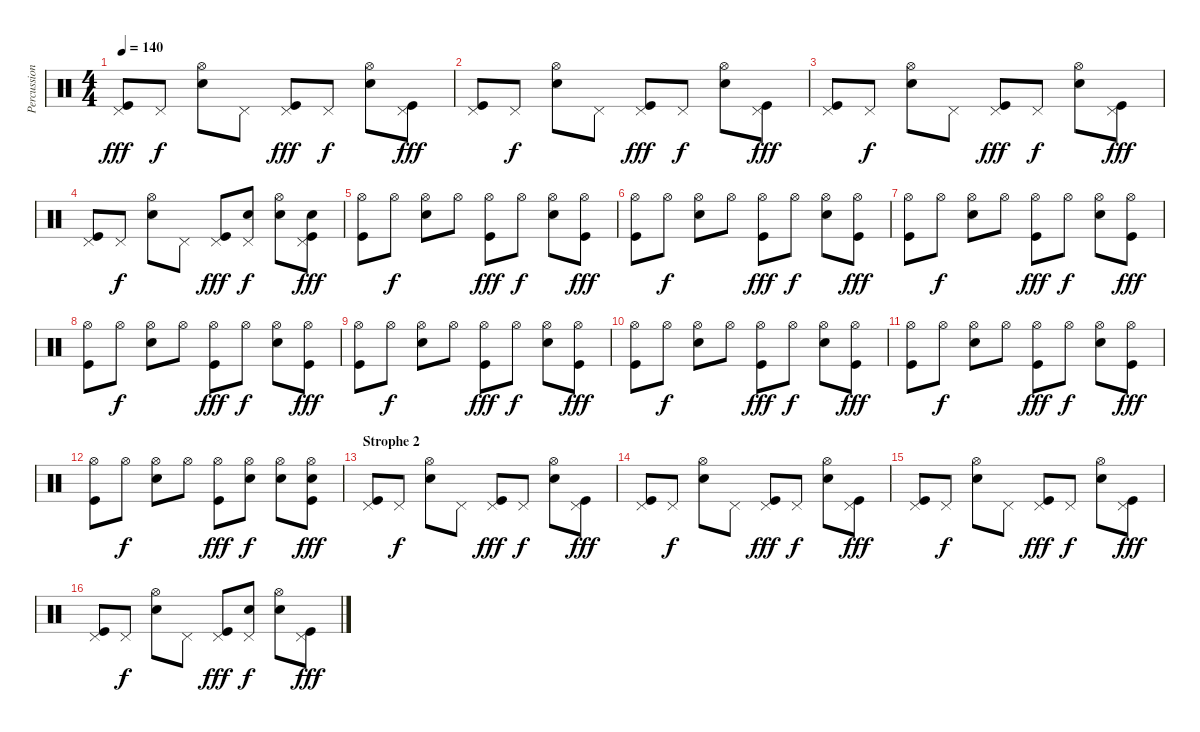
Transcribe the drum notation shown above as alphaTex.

\track ("Percussion" "Percussion") {instrument percussion}
\staff {score}
\articulation defaults
\ts (4 4)
\tempo 140
\clef neutral
\ks c
("Kick (hit)" "Pedal Hi-Hat (hit)").8{dy fff} "Pedal Hi-Hat (hit)".8{dy f} ("Metronome (bell)" "Hi-Hat (open)").8 "Pedal Hi-Hat (hit)".8 ("Kick (hit)" "Pedal Hi-Hat (hit)").8{dy fff} "Pedal Hi-Hat (hit)".8{dy f} ("Metronome (bell)" "Hi-Hat (open)").8 ("Kick (hit)" "Pedal Hi-Hat (hit)").8{dy fff} |
("Kick (hit)" "Pedal Hi-Hat (hit)").8 "Pedal Hi-Hat (hit)".8{dy f} ("Metronome (bell)" "Hi-Hat (open)").8 "Pedal Hi-Hat (hit)".8 ("Kick (hit)" "Pedal Hi-Hat (hit)").8{dy fff} "Pedal Hi-Hat (hit)".8{dy f} ("Metronome (bell)" "Hi-Hat (open)").8 ("Kick (hit)" "Pedal Hi-Hat (hit)").8{dy fff} |
("Kick (hit)" "Pedal Hi-Hat (hit)").8 "Pedal Hi-Hat (hit)".8{dy f} ("Metronome (bell)" "Hi-Hat (open)").8 "Pedal Hi-Hat (hit)".8 ("Kick (hit)" "Pedal Hi-Hat (hit)").8{dy fff} "Pedal Hi-Hat (hit)".8{dy f} ("Metronome (bell)" "Hi-Hat (open)").8 ("Kick (hit)" "Pedal Hi-Hat (hit)").8{dy fff} |
("Kick (hit)" "Pedal Hi-Hat (hit)").8 "Pedal Hi-Hat (hit)".8{dy f} ("Metronome (bell)" "Hi-Hat (open)").8 "Pedal Hi-Hat (hit)".8 ("Kick (hit)" "Pedal Hi-Hat (hit)").8{dy fff} ("Metronome (bell)" "Pedal Hi-Hat (hit)").8{dy f} ("Metronome (bell)" "Hi-Hat (open)").8 ("Kick (hit)" "Metronome (bell)" "Pedal Hi-Hat (hit)").8{dy fff} |
("Kick (hit)" "Hi-Hat (open)").8 "Hi-Hat (open)".8{dy f} ("Metronome (bell)" "Hi-Hat (open)").8 "Hi-Hat (open)".8 ("Kick (hit)" "Hi-Hat (open)").8{dy fff} "Hi-Hat (open)".8{dy f} ("Metronome (bell)" "Hi-Hat (open)").8 ("Kick (hit)" "Hi-Hat (open)").8{dy fff} |
("Kick (hit)" "Hi-Hat (open)").8 "Hi-Hat (open)".8{dy f} ("Metronome (bell)" "Hi-Hat (open)").8 "Hi-Hat (open)".8 ("Kick (hit)" "Hi-Hat (open)").8{dy fff} "Hi-Hat (open)".8{dy f} ("Metronome (bell)" "Hi-Hat (open)").8 ("Kick (hit)" "Hi-Hat (open)").8{dy fff} |
("Kick (hit)" "Hi-Hat (open)").8 "Hi-Hat (open)".8{dy f} ("Metronome (bell)" "Hi-Hat (open)").8 "Hi-Hat (open)".8 ("Kick (hit)" "Hi-Hat (open)").8{dy fff} "Hi-Hat (open)".8{dy f} ("Metronome (bell)" "Hi-Hat (open)").8 ("Kick (hit)" "Hi-Hat (open)").8{dy fff} |
("Kick (hit)" "Hi-Hat (open)").8 "Hi-Hat (open)".8{dy f} ("Metronome (bell)" "Hi-Hat (open)").8 "Hi-Hat (open)".8 ("Kick (hit)" "Hi-Hat (open)").8{dy fff} "Hi-Hat (open)".8{dy f} ("Metronome (bell)" "Hi-Hat (open)").8 ("Kick (hit)" "Hi-Hat (open)").8{dy fff} |
("Kick (hit)" "Hi-Hat (open)").8 "Hi-Hat (open)".8{dy f} ("Metronome (bell)" "Hi-Hat (open)").8 "Hi-Hat (open)".8 ("Kick (hit)" "Hi-Hat (open)").8{dy fff} "Hi-Hat (open)".8{dy f} ("Metronome (bell)" "Hi-Hat (open)").8 ("Kick (hit)" "Hi-Hat (open)").8{dy fff} |
("Kick (hit)" "Hi-Hat (open)").8 "Hi-Hat (open)".8{dy f} ("Metronome (bell)" "Hi-Hat (open)").8 "Hi-Hat (open)".8 ("Kick (hit)" "Hi-Hat (open)").8{dy fff} "Hi-Hat (open)".8{dy f} ("Metronome (bell)" "Hi-Hat (open)").8 ("Kick (hit)" "Hi-Hat (open)").8{dy fff} |
("Kick (hit)" "Hi-Hat (open)").8 "Hi-Hat (open)".8{dy f} ("Metronome (bell)" "Hi-Hat (open)").8 "Hi-Hat (open)".8 ("Kick (hit)" "Hi-Hat (open)").8{dy fff} "Hi-Hat (open)".8{dy f} ("Metronome (bell)" "Hi-Hat (open)").8 ("Kick (hit)" "Hi-Hat (open)").8{dy fff} |
("Kick (hit)" "Hi-Hat (open)").8 "Hi-Hat (open)".8{dy f} ("Metronome (bell)" "Hi-Hat (open)").8 "Hi-Hat (open)".8 ("Kick (hit)" "Hi-Hat (open)").8{dy fff} ("Metronome (bell)" "Hi-Hat (open)").8{dy f} ("Metronome (bell)" "Hi-Hat (open)").8 ("Kick (hit)" "Metronome (bell)" "Hi-Hat (open)").8{dy fff} |
\section ("" "Strophe 2")
("Kick (hit)" "Pedal Hi-Hat (hit)").8 "Pedal Hi-Hat (hit)".8{dy f} ("Metronome (bell)" "Hi-Hat (open)").8 "Pedal Hi-Hat (hit)".8 ("Kick (hit)" "Pedal Hi-Hat (hit)").8{dy fff} "Pedal Hi-Hat (hit)".8{dy f} ("Metronome (bell)" "Hi-Hat (open)").8 ("Kick (hit)" "Pedal Hi-Hat (hit)").8{dy fff} |
("Kick (hit)" "Pedal Hi-Hat (hit)").8 "Pedal Hi-Hat (hit)".8{dy f} ("Metronome (bell)" "Hi-Hat (open)").8 "Pedal Hi-Hat (hit)".8 ("Kick (hit)" "Pedal Hi-Hat (hit)").8{dy fff} "Pedal Hi-Hat (hit)".8{dy f} ("Metronome (bell)" "Hi-Hat (open)").8 ("Kick (hit)" "Pedal Hi-Hat (hit)").8{dy fff} |
("Kick (hit)" "Pedal Hi-Hat (hit)").8 "Pedal Hi-Hat (hit)".8{dy f} ("Metronome (bell)" "Hi-Hat (open)").8 "Pedal Hi-Hat (hit)".8 ("Kick (hit)" "Pedal Hi-Hat (hit)").8{dy fff} "Pedal Hi-Hat (hit)".8{dy f} ("Metronome (bell)" "Hi-Hat (open)").8 ("Kick (hit)" "Pedal Hi-Hat (hit)").8{dy fff} |
("Kick (hit)" "Pedal Hi-Hat (hit)").8 "Pedal Hi-Hat (hit)".8{dy f} ("Metronome (bell)" "Hi-Hat (open)").8 "Pedal Hi-Hat (hit)".8 ("Kick (hit)" "Pedal Hi-Hat (hit)").8{dy fff} ("Metronome (bell)" "Pedal Hi-Hat (hit)").8{dy f} ("Metronome (bell)" "Hi-Hat (open)").8 ("Kick (hit)" "Pedal Hi-Hat (hit)").8{dy fff}
